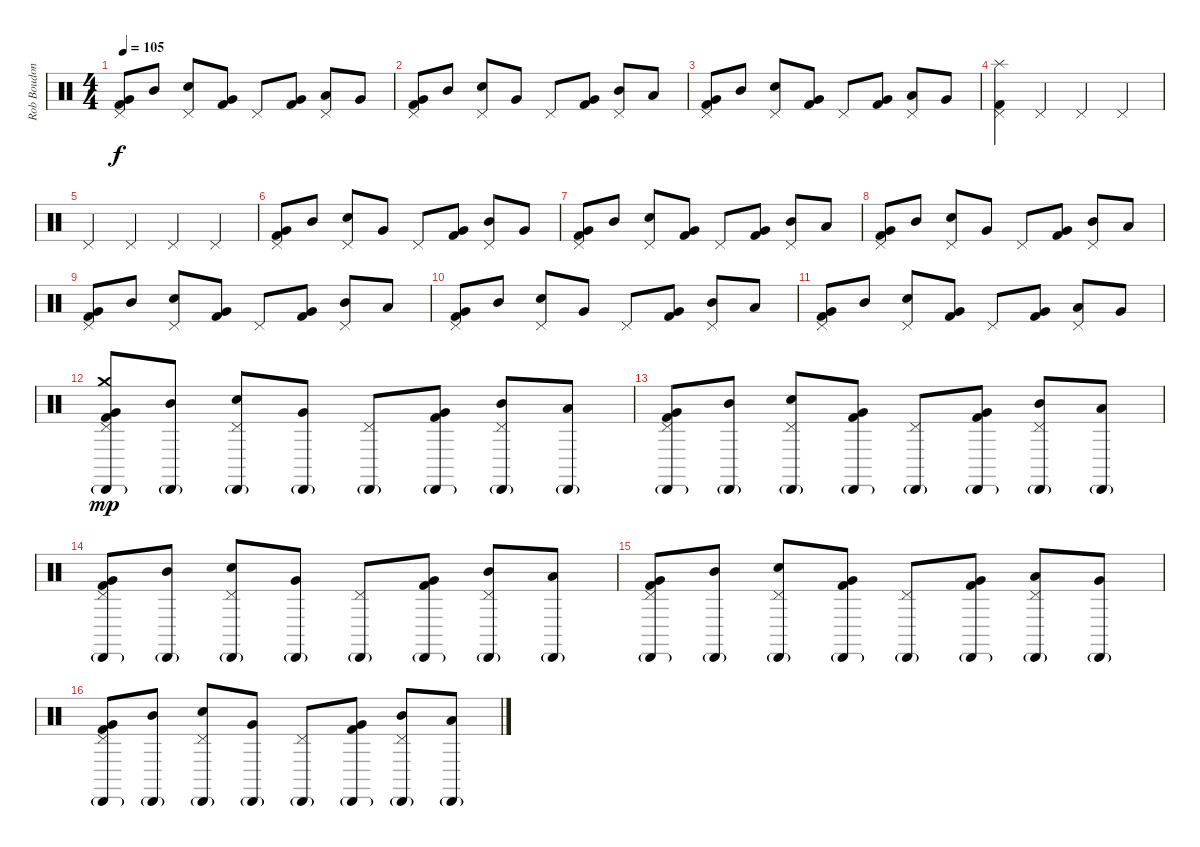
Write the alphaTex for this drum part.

\track ("Rob Boudon [Drums]" "Rob Boudon") {instrument percussion}
\staff {score}
\articulation defaults
\ts (4 4)
\tempo 105
\clef neutral
\ks c
("Pedal Hi-Hat (hit)" "Very Low Tom (hit)" "Kick (hit) 2").8{dy f} "Mid Tom (hit)".8 ("Pedal Hi-Hat (hit)" "Snare (hit) 2").8 ("Very Low Tom (hit)" "Kick (hit) 2").8 "Pedal Hi-Hat (hit)".8 ("Very Low Tom (hit)" "Kick (hit) 2").8 ("Pedal Hi-Hat (hit)" "Low Tom (hit)").8 "Very Low Tom (hit)".8 |
("Pedal Hi-Hat (hit)" "Very Low Tom (hit)" "Kick (hit) 2").8 "Mid Tom (hit)".8 ("Pedal Hi-Hat (hit)" "Snare (hit) 2").8 "Very Low Tom (hit)".8 "Pedal Hi-Hat (hit)".8 ("Very Low Tom (hit)" "Kick (hit) 2").8 ("Pedal Hi-Hat (hit)" "Mid Tom (hit)").8 "Low Tom (hit)".8 |
("Pedal Hi-Hat (hit)" "Very Low Tom (hit)" "Kick (hit) 2").8 "Mid Tom (hit)".8 ("Pedal Hi-Hat (hit)" "Snare (hit) 2").8 ("Very Low Tom (hit)" "Kick (hit) 2").8 "Pedal Hi-Hat (hit)".8 ("Very Low Tom (hit)" "Kick (hit) 2").8 ("Pedal Hi-Hat (hit)" "Low Tom (hit)").8 "Very Low Tom (hit)".8 |
("Splash (hit)" "Pedal Hi-Hat (hit)" "Kick (hit) 2").4 "Pedal Hi-Hat (hit)".4 "Pedal Hi-Hat (hit)".4 "Pedal Hi-Hat (hit)".4 |
"Pedal Hi-Hat (hit)".4 "Pedal Hi-Hat (hit)".4 "Pedal Hi-Hat (hit)".4 "Pedal Hi-Hat (hit)".4 |
("Pedal Hi-Hat (hit)" "Very Low Tom (hit)" "Kick (hit) 2").8 "Mid Tom (hit)".8 ("Pedal Hi-Hat (hit)" "Snare (hit) 2").8 "Very Low Tom (hit)".8 "Pedal Hi-Hat (hit)".8 ("Very Low Tom (hit)" "Kick (hit) 2").8 ("Pedal Hi-Hat (hit)" "Mid Tom (hit)").8 "Very Low Tom (hit)".8 |
("Pedal Hi-Hat (hit)" "Very Low Tom (hit)" "Kick (hit) 2").8 "Mid Tom (hit)".8 ("Pedal Hi-Hat (hit)" "Snare (hit) 2").8 ("Very Low Tom (hit)" "Kick (hit) 2").8 "Pedal Hi-Hat (hit)".8 ("Very Low Tom (hit)" "Kick (hit) 2").8 ("Pedal Hi-Hat (hit)" "Mid Tom (hit)").8 "Low Tom (hit)".8 |
("Pedal Hi-Hat (hit)" "Very Low Tom (hit)" "Kick (hit) 2").8 "Mid Tom (hit)".8 ("Pedal Hi-Hat (hit)" "Snare (hit) 2").8 "Very Low Tom (hit)".8 "Pedal Hi-Hat (hit)".8 ("Very Low Tom (hit)" "Kick (hit) 2").8 ("Pedal Hi-Hat (hit)" "Mid Tom (hit)").8 "Low Tom (hit)".8 |
("Pedal Hi-Hat (hit)" "Very Low Tom (hit)" "Kick (hit) 2").8 "Mid Tom (hit)".8 ("Pedal Hi-Hat (hit)" "Snare (hit) 2").8 ("Very Low Tom (hit)" "Kick (hit) 2").8 "Pedal Hi-Hat (hit)".8 ("Very Low Tom (hit)" "Kick (hit) 2").8 ("Pedal Hi-Hat (hit)" "Mid Tom (hit)").8 "Low Tom (hit)".8 |
("Pedal Hi-Hat (hit)" "Very Low Tom (hit)" "Kick (hit) 2").8 "Mid Tom (hit)".8 ("Pedal Hi-Hat (hit)" "Snare (hit) 2").8 "Very Low Tom (hit)".8 "Pedal Hi-Hat (hit)".8 ("Very Low Tom (hit)" "Kick (hit) 2").8 ("Pedal Hi-Hat (hit)" "Mid Tom (hit)").8 "Low Tom (hit)".8 |
("Pedal Hi-Hat (hit)" "Very Low Tom (hit)" "Kick (hit) 2").8 "Mid Tom (hit)".8 ("Pedal Hi-Hat (hit)" "Snare (hit) 2").8 ("Very Low Tom (hit)" "Kick (hit) 2").8 "Pedal Hi-Hat (hit)".8 ("Very Low Tom (hit)" "Kick (hit) 2").8 ("Pedal Hi-Hat (hit)" "Low Tom (hit)").8 "Very Low Tom (hit)".8 |
("Crash medium (hit)" "Cabasa (hit)"{g} "Pedal Hi-Hat (hit)" "Very Low Tom (hit)" "Kick (hit) 2").8{dy mp} ("Cabasa (hit)"{g} "Mid Tom (hit)").8 ("Cabasa (hit)"{g} "Pedal Hi-Hat (hit)" "Snare (hit) 2").8 ("Cabasa (hit)"{g} "Very Low Tom (hit)").8 ("Cabasa (hit)"{g} "Pedal Hi-Hat (hit)").8 ("Cabasa (hit)"{g} "Very Low Tom (hit)" "Kick (hit) 2").8 ("Cabasa (hit)"{g} "Pedal Hi-Hat (hit)" "Mid Tom (hit)").8 ("Cabasa (hit)"{g} "Low Tom (hit)").8 |
("Cabasa (hit)"{g} "Pedal Hi-Hat (hit)" "Very Low Tom (hit)" "Kick (hit) 2").8 ("Cabasa (hit)"{g} "Mid Tom (hit)").8 ("Cabasa (hit)"{g} "Pedal Hi-Hat (hit)" "Snare (hit) 2").8 ("Cabasa (hit)"{g} "Very Low Tom (hit)" "Kick (hit) 2").8 ("Cabasa (hit)"{g} "Pedal Hi-Hat (hit)").8 ("Cabasa (hit)"{g} "Very Low Tom (hit)" "Kick (hit) 2").8 ("Cabasa (hit)"{g} "Pedal Hi-Hat (hit)" "Mid Tom (hit)").8 ("Cabasa (hit)"{g} "Low Tom (hit)").8 |
("Cabasa (hit)"{g} "Pedal Hi-Hat (hit)" "Very Low Tom (hit)" "Kick (hit) 2").8 ("Cabasa (hit)"{g} "Mid Tom (hit)").8 ("Cabasa (hit)"{g} "Pedal Hi-Hat (hit)" "Snare (hit) 2").8 ("Cabasa (hit)"{g} "Very Low Tom (hit)").8 ("Cabasa (hit)"{g} "Pedal Hi-Hat (hit)").8 ("Cabasa (hit)"{g} "Very Low Tom (hit)" "Kick (hit) 2").8 ("Cabasa (hit)"{g} "Pedal Hi-Hat (hit)" "Mid Tom (hit)").8 ("Cabasa (hit)"{g} "Low Tom (hit)").8 |
("Cabasa (hit)"{g} "Pedal Hi-Hat (hit)" "Very Low Tom (hit)" "Kick (hit) 2").8 ("Cabasa (hit)"{g} "Mid Tom (hit)").8 ("Cabasa (hit)"{g} "Pedal Hi-Hat (hit)" "Snare (hit) 2").8 ("Cabasa (hit)"{g} "Very Low Tom (hit)" "Kick (hit) 2").8 ("Cabasa (hit)"{g} "Pedal Hi-Hat (hit)").8 ("Cabasa (hit)"{g} "Very Low Tom (hit)" "Kick (hit) 2").8 ("Cabasa (hit)"{g} "Pedal Hi-Hat (hit)" "Low Tom (hit)").8 ("Cabasa (hit)"{g} "Very Low Tom (hit)").8 |
("Cabasa (hit)"{g} "Pedal Hi-Hat (hit)" "Very Low Tom (hit)" "Kick (hit) 2").8 ("Cabasa (hit)"{g} "Mid Tom (hit)").8 ("Cabasa (hit)"{g} "Pedal Hi-Hat (hit)" "Snare (hit) 2").8 ("Cabasa (hit)"{g} "Very Low Tom (hit)").8 ("Cabasa (hit)"{g} "Pedal Hi-Hat (hit)").8 ("Cabasa (hit)"{g} "Very Low Tom (hit)" "Kick (hit) 2").8 ("Cabasa (hit)"{g} "Pedal Hi-Hat (hit)" "Mid Tom (hit)").8 ("Cabasa (hit)"{g} "Low Tom (hit)").8
